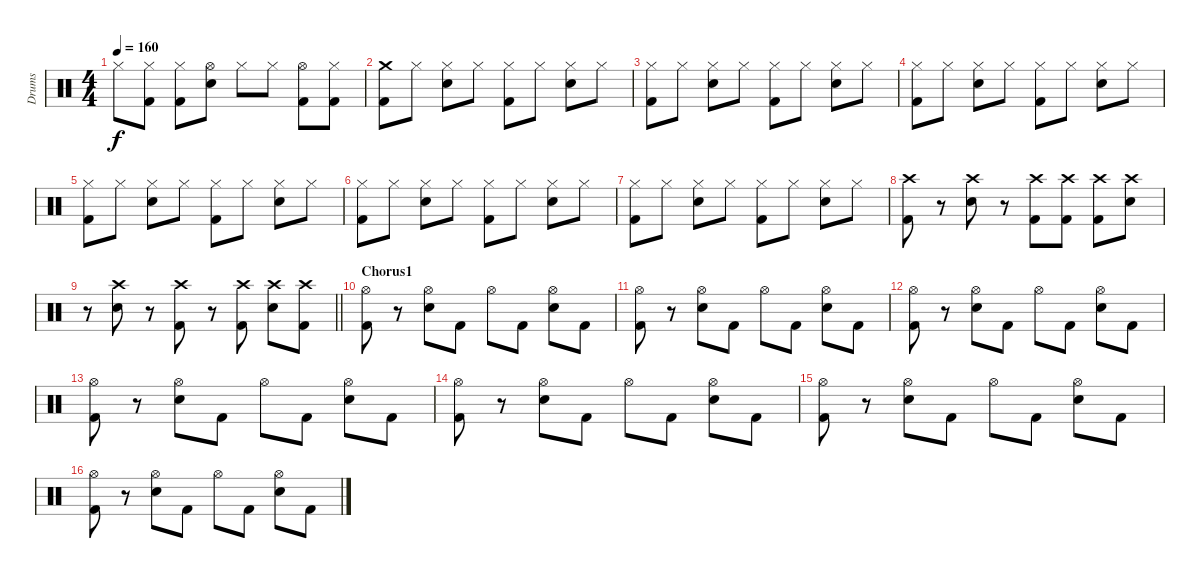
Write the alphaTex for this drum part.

\track ("Drums" "Drums") {instrument percussion}
\staff {score}
\articulation defaults
\ts (4 4)
\tempo 160
\clef neutral
\ks c "Hi-Hat (closed)".8{dy f}
("Hi-Hat (closed)" "Kick (hit) 2").8 ("Hi-Hat (closed)" "Kick (hit) 2").8 ("Hi-Hat (open)" "Electric Snare (hit)").8 "Hi-Hat (closed)".8 "Hi-Hat (closed)".8 ("Hi-Hat (open)" "Kick (hit) 2").8 ("Hi-Hat (closed)" "Kick (hit) 2").8 |
("Crash medium (hit)" "Kick (hit) 2").8 "Hi-Hat (closed)".8 ("Hi-Hat (closed)" "Electric Snare (hit)").8 "Hi-Hat (closed)".8 ("Hi-Hat (closed)" "Kick (hit) 2").8 "Hi-Hat (closed)".8 ("Hi-Hat (closed)" "Electric Snare (hit)").8 "Hi-Hat (closed)".8 |
("Hi-Hat (closed)" "Kick (hit) 2").8 "Hi-Hat (closed)".8 ("Hi-Hat (closed)" "Electric Snare (hit)").8 "Hi-Hat (closed)".8 ("Hi-Hat (closed)" "Kick (hit) 2").8 "Hi-Hat (closed)".8 ("Hi-Hat (closed)" "Electric Snare (hit)").8 "Hi-Hat (closed)".8 |
("Hi-Hat (closed)" "Kick (hit) 2").8 "Hi-Hat (closed)".8 ("Hi-Hat (closed)" "Electric Snare (hit)").8 "Hi-Hat (closed)".8 ("Hi-Hat (closed)" "Kick (hit) 2").8 "Hi-Hat (closed)".8 ("Hi-Hat (closed)" "Electric Snare (hit)").8 "Hi-Hat (closed)".8 |
("Hi-Hat (closed)" "Kick (hit) 2").8 "Hi-Hat (closed)".8 ("Hi-Hat (closed)" "Electric Snare (hit)").8 "Hi-Hat (closed)".8 ("Hi-Hat (closed)" "Kick (hit) 2").8 "Hi-Hat (closed)".8 ("Hi-Hat (closed)" "Electric Snare (hit)").8 "Hi-Hat (closed)".8 |
("Hi-Hat (closed)" "Kick (hit) 2").8 "Hi-Hat (closed)".8 ("Hi-Hat (closed)" "Electric Snare (hit)").8 "Hi-Hat (closed)".8 ("Hi-Hat (closed)" "Kick (hit) 2").8 "Hi-Hat (closed)".8 ("Hi-Hat (closed)" "Electric Snare (hit)").8 "Hi-Hat (closed)".8 |
("Hi-Hat (closed)" "Kick (hit) 2").8 "Hi-Hat (closed)".8 ("Hi-Hat (closed)" "Electric Snare (hit)").8 "Hi-Hat (closed)".8 ("Hi-Hat (closed)" "Kick (hit) 2").8 "Hi-Hat (closed)".8 ("Hi-Hat (closed)" "Electric Snare (hit)").8 "Hi-Hat (closed)".8 |
("Crash high (hit)" "Kick (hit) 2").8 r.8 ("Crash high (hit)" "Electric Snare (hit)").8 r.8 ("Crash high (hit)" "Kick (hit) 2").8 ("Crash high (hit)" "Kick (hit) 2").8 ("Crash high (hit)" "Kick (hit) 2").8 ("Crash high (hit)" "Electric Snare (hit)").8 |
\barLineRight lightlight
r.8 ("Crash high (hit)" "Electric Snare (hit)").8 r.8 ("Crash high (hit)" "Kick (hit) 2").8 r.8 ("Crash high (hit)" "Kick (hit) 2").8 ("Crash high (hit)" "Electric Snare (hit)").8 ("Crash high (hit)" "Kick (hit) 2").8 |
\section ("" "Chorus1")
("Hi-Hat (open)" "Kick (hit) 2").8 r.8 ("Hi-Hat (open)" "Electric Snare (hit)").8 "Kick (hit) 2".8 "Hi-Hat (open)".8 "Kick (hit) 2".8 ("Hi-Hat (open)" "Electric Snare (hit)").8 "Kick (hit) 2".8 |
("Hi-Hat (open)" "Kick (hit) 2").8 r.8 ("Hi-Hat (open)" "Electric Snare (hit)").8 "Kick (hit) 2".8 "Hi-Hat (open)".8 "Kick (hit) 2".8 ("Hi-Hat (open)" "Electric Snare (hit)").8 "Kick (hit) 2".8 |
("Hi-Hat (open)" "Kick (hit) 2").8 r.8 ("Hi-Hat (open)" "Electric Snare (hit)").8 "Kick (hit) 2".8 "Hi-Hat (open)".8 "Kick (hit) 2".8 ("Hi-Hat (open)" "Electric Snare (hit)").8 "Kick (hit) 2".8 |
("Hi-Hat (open)" "Kick (hit) 2").8 r.8 ("Hi-Hat (open)" "Electric Snare (hit)").8 "Kick (hit) 2".8 "Hi-Hat (open)".8 "Kick (hit) 2".8 ("Hi-Hat (open)" "Electric Snare (hit)").8 "Kick (hit) 2".8 |
("Hi-Hat (open)" "Kick (hit) 2").8 r.8 ("Hi-Hat (open)" "Electric Snare (hit)").8 "Kick (hit) 2".8 "Hi-Hat (open)".8 "Kick (hit) 2".8 ("Hi-Hat (open)" "Electric Snare (hit)").8 "Kick (hit) 2".8 |
("Hi-Hat (open)" "Kick (hit) 2").8 r.8 ("Hi-Hat (open)" "Electric Snare (hit)").8 "Kick (hit) 2".8 "Hi-Hat (open)".8 "Kick (hit) 2".8 ("Hi-Hat (open)" "Electric Snare (hit)").8 "Kick (hit) 2".8 |
("Hi-Hat (open)" "Kick (hit) 2").8 r.8 ("Hi-Hat (open)" "Electric Snare (hit)").8 "Kick (hit) 2".8 "Hi-Hat (open)".8 "Kick (hit) 2".8 ("Hi-Hat (open)" "Electric Snare (hit)").8 "Kick (hit) 2".8
